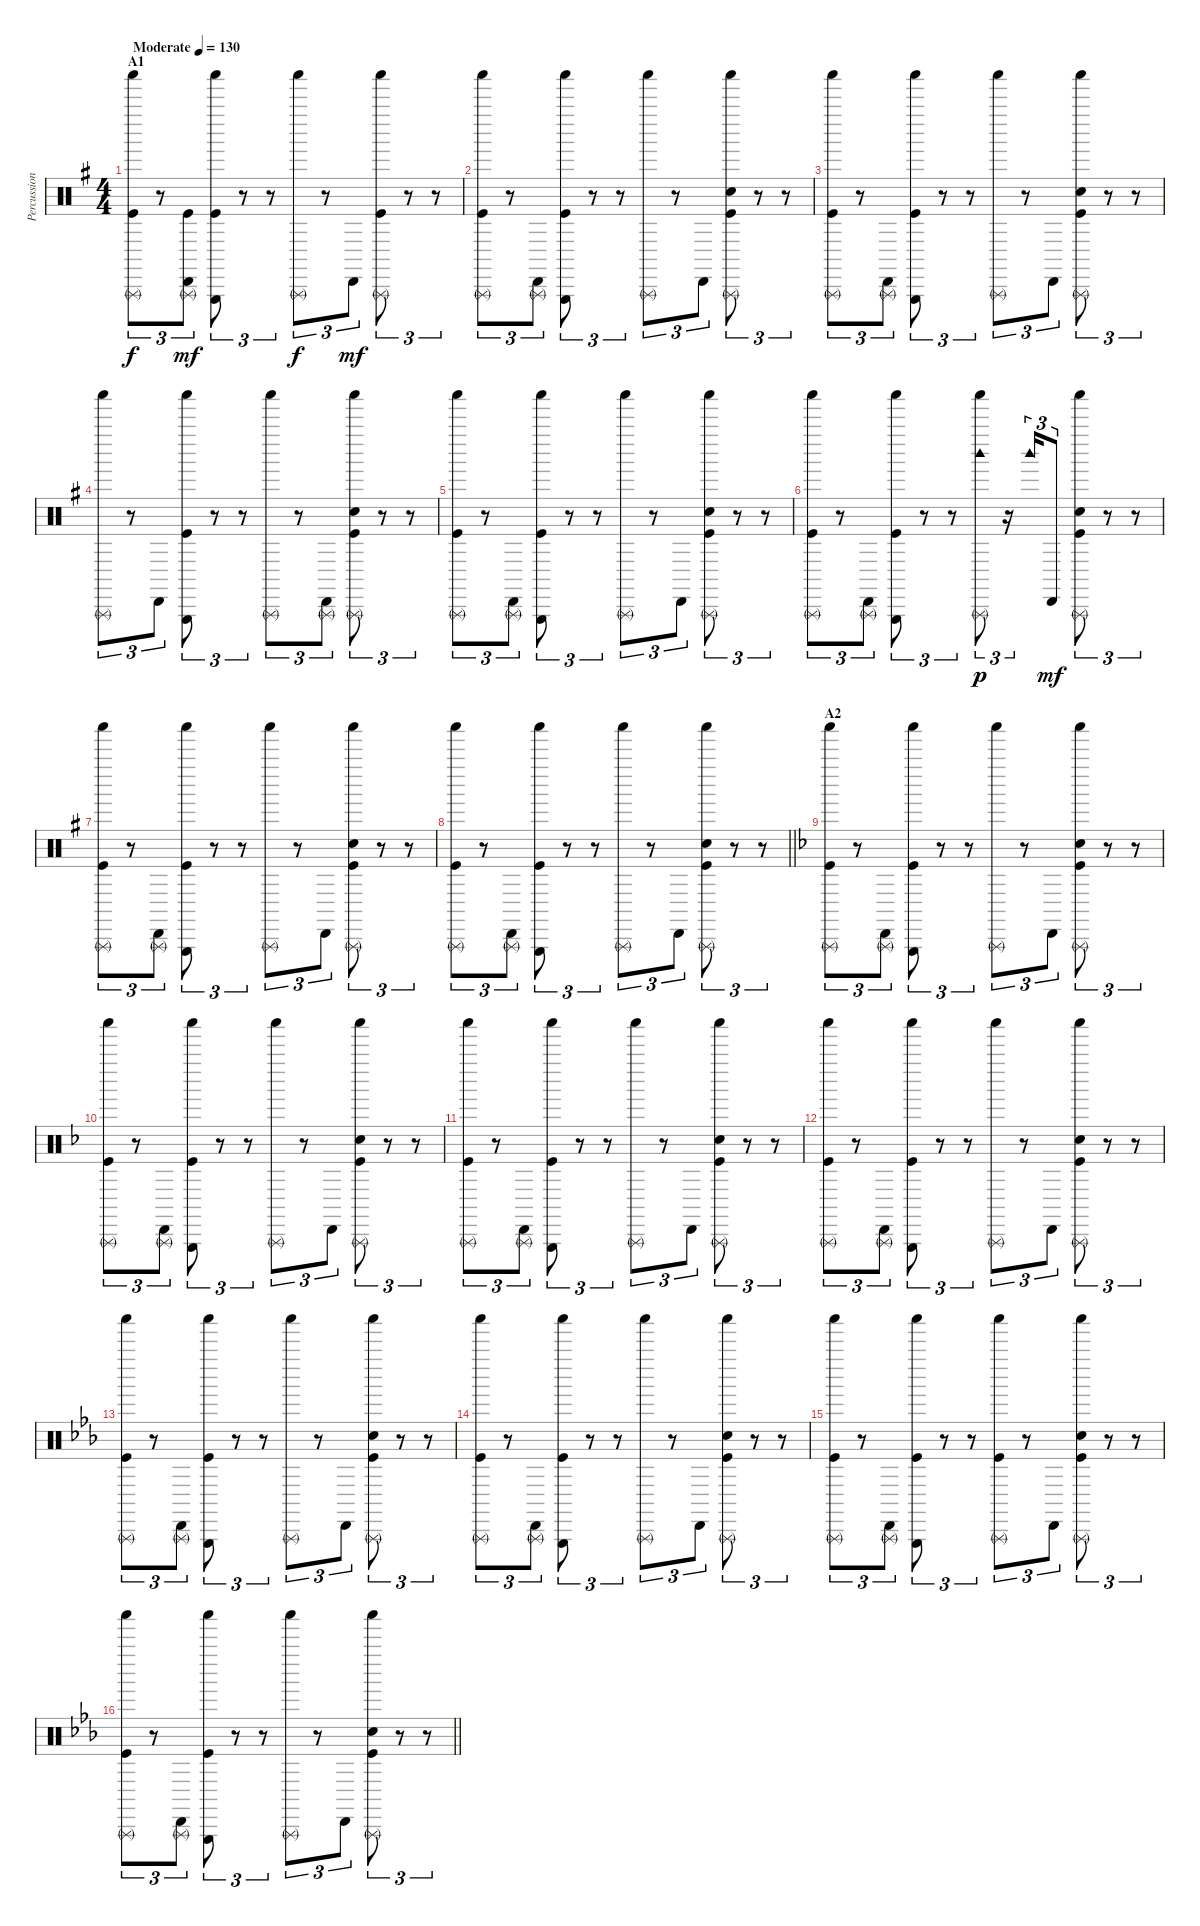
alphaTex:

\track ("Percussion" "Percussion") {instrument percussion}
\staff {score}
\articulation defaults
\ts (4 4)
\section ("" "A1")
\tempo (130 "Moderate")
\clef neutral
\ks g
("Shaker (hit)" "Kick (hit)" "Triangle (rnute)").8{tu (3 2) dy f} r.8{tu (3 2)} ("Cabasa (hit)" "Kick (hit)" "Triangle (rnute)").8{tu (3 2) dy mf} ("Shaker (hit)" "Kick (hit)" "Triangle (hit)").8{tu (3 2)} r.8{tu (3 2)} r.8{tu (3 2)} ("Shaker (hit)" "Triangle (rnute)").8{tu (3 2) dy f} r.8{tu (3 2)} "Cabasa (hit)".8{tu (3 2) dy mf} ("Shaker (hit)" "Kick (hit)" "Triangle (rnute)").8{tu (3 2)} r.8{tu (3 2)} r.8{tu (3 2)} |
("Shaker (hit)" "Kick (hit)" "Triangle (rnute)").8{tu (3 2)} r.8{tu (3 2)} ("Cabasa (hit)" "Triangle (rnute)").8{tu (3 2)} ("Shaker (hit)" "Kick (hit)" "Triangle (hit)").8{tu (3 2)} r.8{tu (3 2)} r.8{tu (3 2)} ("Shaker (hit)" "Triangle (rnute)").8{tu (3 2)} r.8{tu (3 2)} "Cabasa (hit)".8{tu (3 2)} ("Shaker (hit)" "Kick (hit)" "Triangle (rnute)" "Snare (hit) 2").8{tu (3 2)} r.8{tu (3 2)} r.8{tu (3 2)} |
("Shaker (hit)" "Kick (hit)" "Triangle (rnute)").8{tu (3 2)} r.8{tu (3 2)} ("Cabasa (hit)" "Triangle (rnute)").8{tu (3 2)} ("Shaker (hit)" "Kick (hit)" "Triangle (hit)").8{tu (3 2)} r.8{tu (3 2)} r.8{tu (3 2)} ("Shaker (hit)" "Triangle (rnute)").8{tu (3 2)} r.8{tu (3 2)} "Cabasa (hit)".8{tu (3 2)} ("Shaker (hit)" "Kick (hit)" "Triangle (rnute)" "Snare (hit) 2").8{tu (3 2)} r.8{tu (3 2)} r.8{tu (3 2)} |
("Shaker (hit)" "Triangle (rnute)").8{tu (3 2)} r.8{tu (3 2)} "Cabasa (hit)".8{tu (3 2)} ("Shaker (hit)" "Kick (hit)" "Triangle (hit)").8{tu (3 2)} r.8{tu (3 2)} r.8{tu (3 2)} ("Shaker (hit)" "Triangle (rnute)").8{tu (3 2)} r.8{tu (3 2)} ("Cabasa (hit)" "Triangle (rnute)").8{tu (3 2)} ("Shaker (hit)" "Kick (hit)" "Triangle (rnute)" "Snare (hit) 2").8{tu (3 2)} r.8{tu (3 2)} r.8{tu (3 2)} |
("Shaker (hit)" "Kick (hit)" "Triangle (rnute)").8{tu (3 2)} r.8{tu (3 2)} ("Cabasa (hit)" "Triangle (rnute)").8{tu (3 2)} ("Shaker (hit)" "Kick (hit)" "Triangle (hit)").8{tu (3 2)} r.8{tu (3 2)} r.8{tu (3 2)} ("Shaker (hit)" "Triangle (rnute)").8{tu (3 2)} r.8{tu (3 2)} "Cabasa (hit)".8{tu (3 2)} ("Shaker (hit)" "Kick (hit)" "Triangle (rnute)" "Snare (hit) 2").8{tu (3 2)} r.8{tu (3 2)} r.8{tu (3 2)} |
("Shaker (hit)" "Kick (hit)" "Triangle (rnute)").8{tu (3 2)} r.8{tu (3 2)} ("Cabasa (hit)" "Triangle (rnute)").8{tu (3 2)} ("Shaker (hit)" "Kick (hit)" "Triangle (hit)").8{tu (3 2)} r.8{tu (3 2)} r.8{tu (3 2)} ("Shaker (hit)" "Triangle (rnute)" "Woodblock high (hit)").8{tu (3 2) dy p} r.16{tu (3 2)} "Woodblock high (hit)".16{tu (3 2)} "Cabasa (hit)".8{tu (3 2) dy mf} ("Shaker (hit)" "Kick (hit)" "Triangle (rnute)" "Snare (hit) 2").8{tu (3 2)} r.8{tu (3 2)} r.8{tu (3 2)} |
("Shaker (hit)" "Kick (hit)" "Triangle (rnute)").8{tu (3 2)} r.8{tu (3 2)} ("Cabasa (hit)" "Triangle (rnute)").8{tu (3 2)} ("Shaker (hit)" "Kick (hit)" "Triangle (hit)").8{tu (3 2)} r.8{tu (3 2)} r.8{tu (3 2)} ("Shaker (hit)" "Triangle (rnute)").8{tu (3 2)} r.8{tu (3 2)} "Cabasa (hit)".8{tu (3 2)} ("Shaker (hit)" "Kick (hit)" "Triangle (rnute)" "Snare (hit) 2").8{tu (3 2)} r.8{tu (3 2)} r.8{tu (3 2)} |
\barLineRight lightlight
("Shaker (hit)" "Kick (hit)" "Triangle (rnute)").8{tu (3 2)} r.8{tu (3 2)} ("Cabasa (hit)" "Triangle (rnute)").8{tu (3 2)} ("Shaker (hit)" "Kick (hit)" "Triangle (hit)").8{tu (3 2)} r.8{tu (3 2)} r.8{tu (3 2)} ("Shaker (hit)" "Triangle (rnute)").8{tu (3 2)} r.8{tu (3 2)} "Cabasa (hit)".8{tu (3 2)} ("Shaker (hit)" "Kick (hit)" "Triangle (rnute)" "Snare (hit) 2").8{tu (3 2)} r.8{tu (3 2)} r.8{tu (3 2)} |
\section ("" "A2")
\ks f
("Shaker (hit)" "Kick (hit)" "Triangle (rnute)").8{tu (3 2)} r.8{tu (3 2)} ("Cabasa (hit)" "Triangle (rnute)").8{tu (3 2)} ("Shaker (hit)" "Kick (hit)" "Triangle (hit)").8{tu (3 2)} r.8{tu (3 2)} r.8{tu (3 2)} ("Shaker (hit)" "Triangle (rnute)").8{tu (3 2)} r.8{tu (3 2)} "Cabasa (hit)".8{tu (3 2)} ("Shaker (hit)" "Kick (hit)" "Triangle (rnute)" "Snare (hit) 2").8{tu (3 2)} r.8{tu (3 2)} r.8{tu (3 2)} |
("Shaker (hit)" "Kick (hit)" "Triangle (rnute)").8{tu (3 2)} r.8{tu (3 2)} ("Cabasa (hit)" "Triangle (rnute)").8{tu (3 2)} ("Shaker (hit)" "Kick (hit)" "Triangle (hit)").8{tu (3 2)} r.8{tu (3 2)} r.8{tu (3 2)} ("Shaker (hit)" "Triangle (rnute)").8{tu (3 2)} r.8{tu (3 2)} "Cabasa (hit)".8{tu (3 2)} ("Shaker (hit)" "Kick (hit)" "Triangle (rnute)" "Snare (hit) 2").8{tu (3 2)} r.8{tu (3 2)} r.8{tu (3 2)} |
("Shaker (hit)" "Kick (hit)" "Triangle (rnute)").8{tu (3 2)} r.8{tu (3 2)} ("Cabasa (hit)" "Triangle (rnute)").8{tu (3 2)} ("Shaker (hit)" "Kick (hit)" "Triangle (hit)").8{tu (3 2)} r.8{tu (3 2)} r.8{tu (3 2)} ("Shaker (hit)" "Triangle (rnute)").8{tu (3 2)} r.8{tu (3 2)} "Cabasa (hit)".8{tu (3 2)} ("Shaker (hit)" "Kick (hit)" "Triangle (rnute)" "Snare (hit) 2").8{tu (3 2)} r.8{tu (3 2)} r.8{tu (3 2)} |
("Shaker (hit)" "Kick (hit)" "Triangle (rnute)").8{tu (3 2)} r.8{tu (3 2)} ("Cabasa (hit)" "Triangle (rnute)").8{tu (3 2)} ("Shaker (hit)" "Kick (hit)" "Triangle (hit)").8{tu (3 2)} r.8{tu (3 2)} r.8{tu (3 2)} ("Shaker (hit)" "Triangle (rnute)").8{tu (3 2)} r.8{tu (3 2)} "Cabasa (hit)".8{tu (3 2)} ("Shaker (hit)" "Kick (hit)" "Triangle (rnute)" "Snare (hit) 2").8{tu (3 2)} r.8{tu (3 2)} r.8{tu (3 2)} |
\ks eb
("Shaker (hit)" "Kick (hit)" "Triangle (rnute)").8{tu (3 2)} r.8{tu (3 2)} ("Cabasa (hit)" "Triangle (rnute)").8{tu (3 2)} ("Shaker (hit)" "Kick (hit)" "Triangle (hit)").8{tu (3 2)} r.8{tu (3 2)} r.8{tu (3 2)} ("Shaker (hit)" "Triangle (rnute)").8{tu (3 2)} r.8{tu (3 2)} "Cabasa (hit)".8{tu (3 2)} ("Shaker (hit)" "Kick (hit)" "Triangle (rnute)" "Snare (hit) 2").8{tu (3 2)} r.8{tu (3 2)} r.8{tu (3 2)} |
("Shaker (hit)" "Kick (hit)" "Triangle (rnute)").8{tu (3 2)} r.8{tu (3 2)} ("Cabasa (hit)" "Triangle (rnute)").8{tu (3 2)} ("Shaker (hit)" "Kick (hit)" "Triangle (hit)").8{tu (3 2)} r.8{tu (3 2)} r.8{tu (3 2)} ("Shaker (hit)" "Triangle (rnute)").8{tu (3 2)} r.8{tu (3 2)} "Cabasa (hit)".8{tu (3 2)} ("Shaker (hit)" "Kick (hit)" "Triangle (rnute)" "Snare (hit) 2").8{tu (3 2)} r.8{tu (3 2)} r.8{tu (3 2)} |
("Shaker (hit)" "Kick (hit)" "Triangle (rnute)").8{tu (3 2)} r.8{tu (3 2)} ("Cabasa (hit)" "Triangle (rnute)").8{tu (3 2)} ("Shaker (hit)" "Kick (hit)" "Triangle (hit)").8{tu (3 2)} r.8{tu (3 2)} r.8{tu (3 2)} ("Shaker (hit)" "Kick (hit)" "Triangle (rnute)").8{tu (3 2)} r.8{tu (3 2)} "Cabasa (hit)".8{tu (3 2)} ("Shaker (hit)" "Kick (hit)" "Triangle (rnute)" "Snare (hit) 2").8{tu (3 2)} r.8{tu (3 2)} r.8{tu (3 2)} |
\barLineRight lightlight
("Shaker (hit)" "Kick (hit)" "Triangle (rnute)").8{tu (3 2)} r.8{tu (3 2)} ("Cabasa (hit)" "Triangle (rnute)").8{tu (3 2)} ("Shaker (hit)" "Kick (hit)" "Triangle (hit)").8{tu (3 2)} r.8{tu (3 2)} r.8{tu (3 2)} ("Shaker (hit)" "Triangle (rnute)").8{tu (3 2)} r.8{tu (3 2)} "Cabasa (hit)".8{tu (3 2)} ("Shaker (hit)" "Kick (hit)" "Triangle (rnute)" "Snare (hit) 2").8{tu (3 2)} r.8{tu (3 2)} r.8{tu (3 2)}
